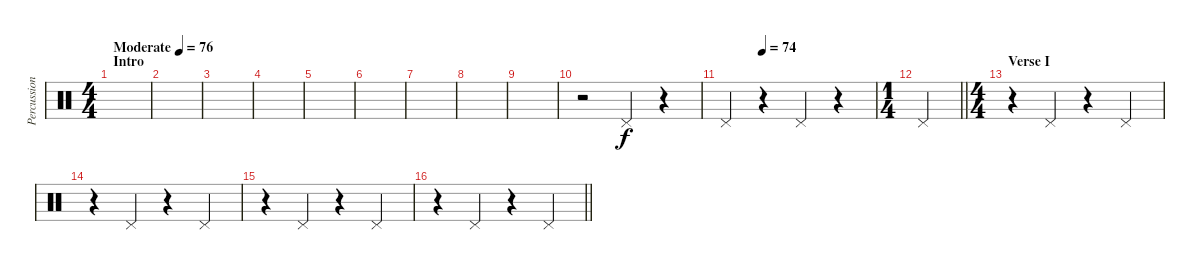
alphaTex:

\track ("Percussion" "Percussion") {instrument percussion}
\staff {score}
\articulation defaults
\ts (4 4)
\section ("" "Intro")
\tempo (76 "Moderate")
\clef neutral
\ks c
|
|
|
|
|
|
|
|
|
r.2 "Pedal Hi-Hat (hit)".4 r.4 |
\tempo (74 0.25)
"Pedal Hi-Hat (hit)".4 r.4 "Pedal Hi-Hat (hit)".4 r.4 |
\ts (1 4)
\barLineRight lightlight "Pedal Hi-Hat (hit)".4
|
\ts (4 4)
\section ("" "Verse I")
r.4 "Pedal Hi-Hat (hit)".4 r.4 "Pedal Hi-Hat (hit)".4 |
r.4 "Pedal Hi-Hat (hit)".4 r.4 "Pedal Hi-Hat (hit)".4 |
r.4 "Pedal Hi-Hat (hit)".4 r.4 "Pedal Hi-Hat (hit)".4 |
\barLineRight lightlight
r.4 "Pedal Hi-Hat (hit)".4 r.4 "Pedal Hi-Hat (hit)".4
